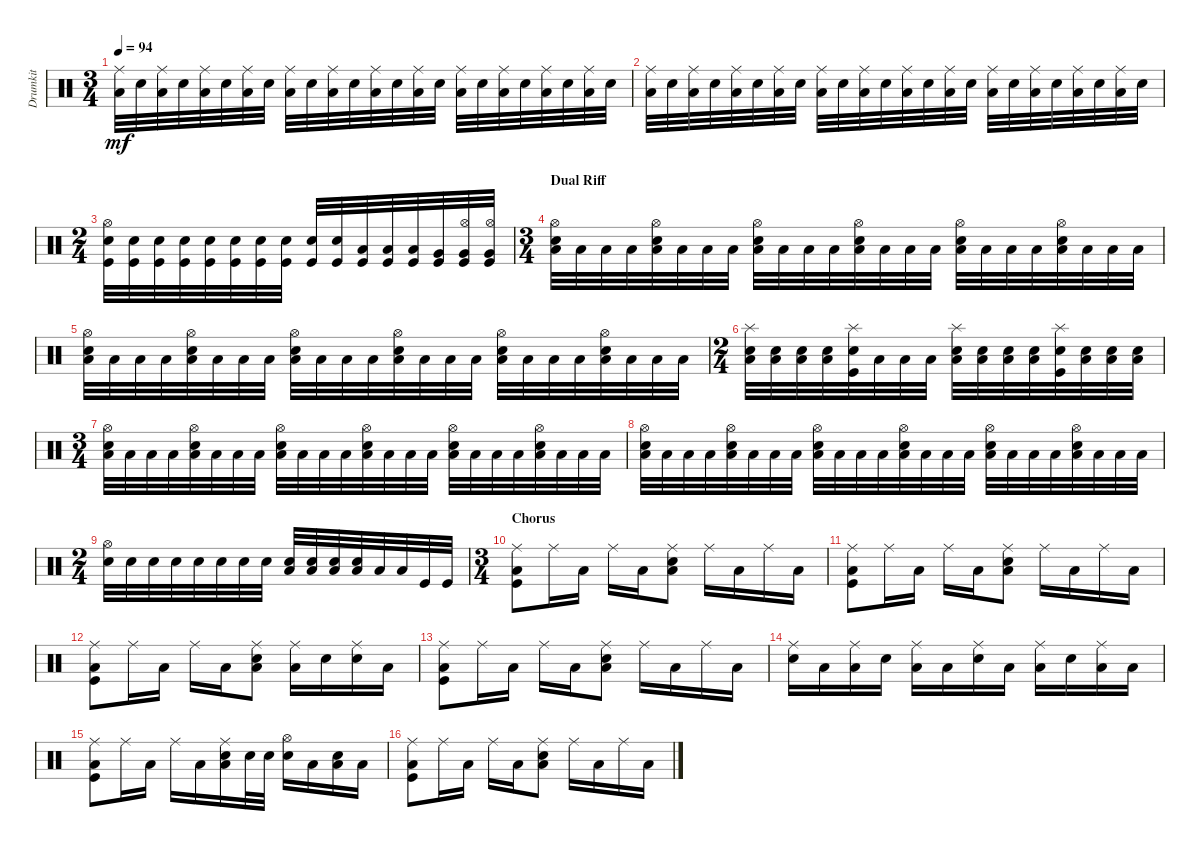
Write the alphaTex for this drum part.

\track ("Drumkit" "Drumkit") {instrument percussion}
\staff {score}
\articulation defaults
\ts (3 4)
\tempo 94
\clef neutral
\ks c
("Low Tom (hit)" "Ride (middle)").32{dy mf} "Snare (hit) 2".32 ("Low Tom (hit)" "Ride (middle)").32 "Snare (hit) 2".32 ("Low Tom (hit)" "Ride (middle)").32 "Snare (hit) 2".32 ("Low Tom (hit)" "Ride (middle)").32 "Snare (hit) 2".32 ("Low Tom (hit)" "Ride (middle)").32 "Snare (hit) 2".32 ("Low Tom (hit)" "Ride (middle)").32 "Snare (hit) 2".32 ("Low Tom (hit)" "Ride (middle)").32 "Snare (hit) 2".32 ("Low Tom (hit)" "Ride (middle)").32 "Snare (hit) 2".32 ("Low Tom (hit)" "Ride (middle)").32 "Snare (hit) 2".32 ("Low Tom (hit)" "Ride (middle)").32 "Snare (hit) 2".32 ("Low Tom (hit)" "Ride (middle)").32 "Snare (hit) 2".32 ("Low Tom (hit)" "Ride (middle)").32 "Snare (hit) 2".32 |
("Low Tom (hit)" "Ride (middle)").32 "Snare (hit) 2".32 ("Low Tom (hit)" "Ride (middle)").32 "Snare (hit) 2".32 ("Low Tom (hit)" "Ride (middle)").32 "Snare (hit) 2".32 ("Low Tom (hit)" "Ride (middle)").32 "Snare (hit) 2".32 ("Low Tom (hit)" "Ride (middle)").32 "Snare (hit) 2".32 ("Low Tom (hit)" "Ride (middle)").32 "Snare (hit) 2".32 ("Low Tom (hit)" "Ride (middle)").32 "Snare (hit) 2".32 ("Low Tom (hit)" "Ride (middle)").32 "Snare (hit) 2".32 ("Low Tom (hit)" "Ride (middle)").32 "Snare (hit) 2".32 ("Low Tom (hit)" "Ride (middle)").32 "Snare (hit) 2".32 ("Low Tom (hit)" "Ride (middle)").32 "Snare (hit) 2".32 ("Low Tom (hit)" "Ride (middle)").32 "Snare (hit) 2".32 |
\ts (2 4)
("Snare (hit) 2" "Kick (hit)" "Hi-Hat (open)").32 ("Snare (hit) 2" "Kick (hit)").32 ("Snare (hit) 2" "Kick (hit)").32 ("Snare (hit) 2" "Kick (hit)").32 ("Snare (hit) 2" "Kick (hit)").32 ("Snare (hit) 2" "Kick (hit)").32 ("Snare (hit) 2" "Kick (hit)").32 ("Snare (hit) 2" "Kick (hit)").32 ("Snare (hit) 2" "Kick (hit)").32 ("Snare (hit) 2" "Kick (hit)").32 ("Kick (hit)" "Low Tom (hit)").32 ("Kick (hit)" "Low Tom (hit)").32 ("Kick (hit)" "Low Tom (hit)").32 ("Kick (hit)" "Very Low Tom (hit)").32 ("Kick (hit)" "Very Low Tom (hit)" "Hi-Hat (open)").32 ("Kick (hit)" "Very Low Tom (hit)" "Hi-Hat (open)").32 |
\ts (3 4)
\section ("" "Dual Riff")
("Low Tom (hit)" "Hi-Hat (open)" "Snare (hit) 2").32 "Low Tom (hit)".32 "Low Tom (hit)".32 "Low Tom (hit)".32 ("Low Tom (hit)" "Hi-Hat (open)" "Snare (hit) 2").32 "Low Tom (hit)".32 "Low Tom (hit)".32 "Low Tom (hit)".32 ("Low Tom (hit)" "Hi-Hat (open)" "Snare (hit) 2").32 "Low Tom (hit)".32 "Low Tom (hit)".32 "Low Tom (hit)".32 ("Low Tom (hit)" "Hi-Hat (open)" "Snare (hit) 2").32 "Low Tom (hit)".32 "Low Tom (hit)".32 "Low Tom (hit)".32 ("Low Tom (hit)" "Hi-Hat (open)" "Snare (hit) 2").32 "Low Tom (hit)".32 "Low Tom (hit)".32 "Low Tom (hit)".32 ("Low Tom (hit)" "Hi-Hat (open)" "Snare (hit) 2").32 "Low Tom (hit)".32 "Low Tom (hit)".32 "Low Tom (hit)".32 |
("Low Tom (hit)" "Hi-Hat (open)" "Snare (hit) 2").32 "Low Tom (hit)".32 "Low Tom (hit)".32 "Low Tom (hit)".32 ("Low Tom (hit)" "Hi-Hat (open)" "Snare (hit) 2").32 "Low Tom (hit)".32 "Low Tom (hit)".32 "Low Tom (hit)".32 ("Low Tom (hit)" "Hi-Hat (open)" "Snare (hit) 2").32 "Low Tom (hit)".32 "Low Tom (hit)".32 "Low Tom (hit)".32 ("Low Tom (hit)" "Hi-Hat (open)" "Snare (hit) 2").32 "Low Tom (hit)".32 "Low Tom (hit)".32 "Low Tom (hit)".32 ("Low Tom (hit)" "Hi-Hat (open)" "Snare (hit) 2").32 "Low Tom (hit)".32 "Low Tom (hit)".32 "Low Tom (hit)".32 ("Low Tom (hit)" "Hi-Hat (open)" "Snare (hit) 2").32 "Low Tom (hit)".32 "Low Tom (hit)".32 "Low Tom (hit)".32 |
\ts (2 4)
("Snare (hit) 2" "Low Tom (hit)" "Splash (hit)").32 ("Snare (hit) 2" "Low Tom (hit)").32 ("Snare (hit) 2" "Low Tom (hit)").32 ("Snare (hit) 2" "Low Tom (hit)").32 ("Snare (hit) 2" "Kick (hit)" "Splash (hit)").32 "Low Tom (hit)".32 "Low Tom (hit)".32 "Low Tom (hit)".32 ("Snare (hit) 2" "Low Tom (hit)" "Splash (hit)").32 ("Snare (hit) 2" "Low Tom (hit)").32 ("Snare (hit) 2" "Low Tom (hit)").32 ("Snare (hit) 2" "Low Tom (hit)").32 ("Snare (hit) 2" "Kick (hit)" "Splash (hit)").32 ("Snare (hit) 2" "Low Tom (hit)").32 ("Snare (hit) 2" "Low Tom (hit)").32 ("Snare (hit) 2" "Low Tom (hit)").32 |
\ts (3 4)
("Low Tom (hit)" "Hi-Hat (open)" "Snare (hit) 2").32 "Low Tom (hit)".32 "Low Tom (hit)".32 "Low Tom (hit)".32 ("Low Tom (hit)" "Hi-Hat (open)" "Snare (hit) 2").32 "Low Tom (hit)".32 "Low Tom (hit)".32 "Low Tom (hit)".32 ("Low Tom (hit)" "Hi-Hat (open)" "Snare (hit) 2").32 "Low Tom (hit)".32 "Low Tom (hit)".32 "Low Tom (hit)".32 ("Low Tom (hit)" "Hi-Hat (open)" "Snare (hit) 2").32 "Low Tom (hit)".32 "Low Tom (hit)".32 "Low Tom (hit)".32 ("Low Tom (hit)" "Hi-Hat (open)" "Snare (hit) 2").32 "Low Tom (hit)".32 "Low Tom (hit)".32 "Low Tom (hit)".32 ("Low Tom (hit)" "Hi-Hat (open)" "Snare (hit) 2").32 "Low Tom (hit)".32 "Low Tom (hit)".32 "Low Tom (hit)".32 |
("Low Tom (hit)" "Hi-Hat (open)" "Snare (hit) 2").32 "Low Tom (hit)".32 "Low Tom (hit)".32 "Low Tom (hit)".32 ("Low Tom (hit)" "Hi-Hat (open)" "Snare (hit) 2").32 "Low Tom (hit)".32 "Low Tom (hit)".32 "Low Tom (hit)".32 ("Low Tom (hit)" "Hi-Hat (open)" "Snare (hit) 2").32 "Low Tom (hit)".32 "Low Tom (hit)".32 "Low Tom (hit)".32 ("Low Tom (hit)" "Hi-Hat (open)" "Snare (hit) 2").32 "Low Tom (hit)".32 "Low Tom (hit)".32 "Low Tom (hit)".32 ("Low Tom (hit)" "Hi-Hat (open)" "Snare (hit) 2").32 "Low Tom (hit)".32 "Low Tom (hit)".32 "Low Tom (hit)".32 ("Low Tom (hit)" "Hi-Hat (open)" "Snare (hit) 2").32 "Low Tom (hit)".32 "Low Tom (hit)".32 "Low Tom (hit)".32 |
\ts (2 4)
("Snare (hit) 2" "Hi-Hat (open)").32 "Snare (hit) 2".32 "Snare (hit) 2".32 "Snare (hit) 2".32 "Snare (hit) 2".32 "Snare (hit) 2".32 "Snare (hit) 2".32 "Snare (hit) 2".32 ("Snare (hit) 2" "Low Tom (hit)").32 ("Snare (hit) 2" "Low Tom (hit)").32 ("Snare (hit) 2" "Low Tom (hit)").32 ("Snare (hit) 2" "Low Tom (hit)").32 "Low Floor Tom (hit)".32 "Low Floor Tom (hit)".32 "Kick (hit)".32 "Kick (hit)".32 |
\ts (3 4)
\section ("" "Chorus")
("Ride (middle)" "Kick (hit)" "Low Tom (hit)").8 "Ride (middle)".16 "Low Tom (hit)".16 "Ride (middle)".16 "Low Tom (hit)".16 ("Ride (middle)" "Snare (hit) 2" "Low Floor Tom (hit)").8 "Ride (middle)".16 "Low Tom (hit)".16 "Ride (middle)".16 "Low Tom (hit)".16 |
("Ride (middle)" "Kick (hit)" "Low Tom (hit)").8 "Ride (middle)".16 "Low Tom (hit)".16 "Ride (middle)".16 "Low Tom (hit)".16 ("Ride (middle)" "Snare (hit) 2" "Low Floor Tom (hit)").8 "Ride (middle)".16 "Low Tom (hit)".16 "Ride (middle)".16 "Low Tom (hit)".16 |
("Ride (middle)" "Kick (hit)" "Low Tom (hit)").8 "Ride (middle)".16 "Low Tom (hit)".16 "Ride (middle)".16 "Low Tom (hit)".16 ("Ride (middle)" "Snare (hit) 2" "Low Floor Tom (hit)").8 ("Ride (middle)" "Low Tom (hit)").16 "Snare (hit) 2".16 ("Ride (middle)" "Snare (hit) 2").16 "Low Tom (hit)".16 |
("Ride (middle)" "Kick (hit)" "Low Tom (hit)").8 "Ride (middle)".16 "Low Tom (hit)".16 "Ride (middle)".16 "Low Tom (hit)".16 ("Ride (middle)" "Snare (hit) 2" "Low Floor Tom (hit)").8 "Ride (middle)".16 "Low Tom (hit)".16 "Ride (middle)".16 "Low Tom (hit)".16 |
("Snare (hit) 2" "Ride (middle)").16 "Low Tom (hit)".16 ("Low Tom (hit)" "Ride (middle)").16 "Snare (hit) 2".16 ("Low Tom (hit)" "Ride (middle)").16 "Low Tom (hit)".16 ("Snare (hit) 2" "Ride (middle)").16 "Low Tom (hit)".16 ("Low Tom (hit)" "Ride (middle)").16 "Snare (hit) 2".16 ("Low Tom (hit)" "Ride (middle)").16 "Low Tom (hit)".16 |
("Ride (middle)" "Kick (hit)" "Low Tom (hit)").8 "Ride (middle)".16 "Low Tom (hit)".16 "Ride (middle)".16 "Low Tom (hit)".16 ("Ride (middle)" "Snare (hit) 2" "Low Floor Tom (hit)").16 "Snare (hit) 2".32 "Snare (hit) 2".32 ("Hi-Hat (open)" "Snare (hit) 2").16 "Low Tom (hit)".16 ("Low Tom (hit)" "Snare (hit) 2").16 "Low Floor Tom (hit)".16 |
("Ride (middle)" "Kick (hit)" "Low Tom (hit)").8 "Ride (middle)".16 "Low Tom (hit)".16 "Ride (middle)".16 "Low Tom (hit)".16 ("Ride (middle)" "Snare (hit) 2" "Low Floor Tom (hit)").8 "Ride (middle)".16 "Low Tom (hit)".16 "Ride (middle)".16 "Low Tom (hit)".16
